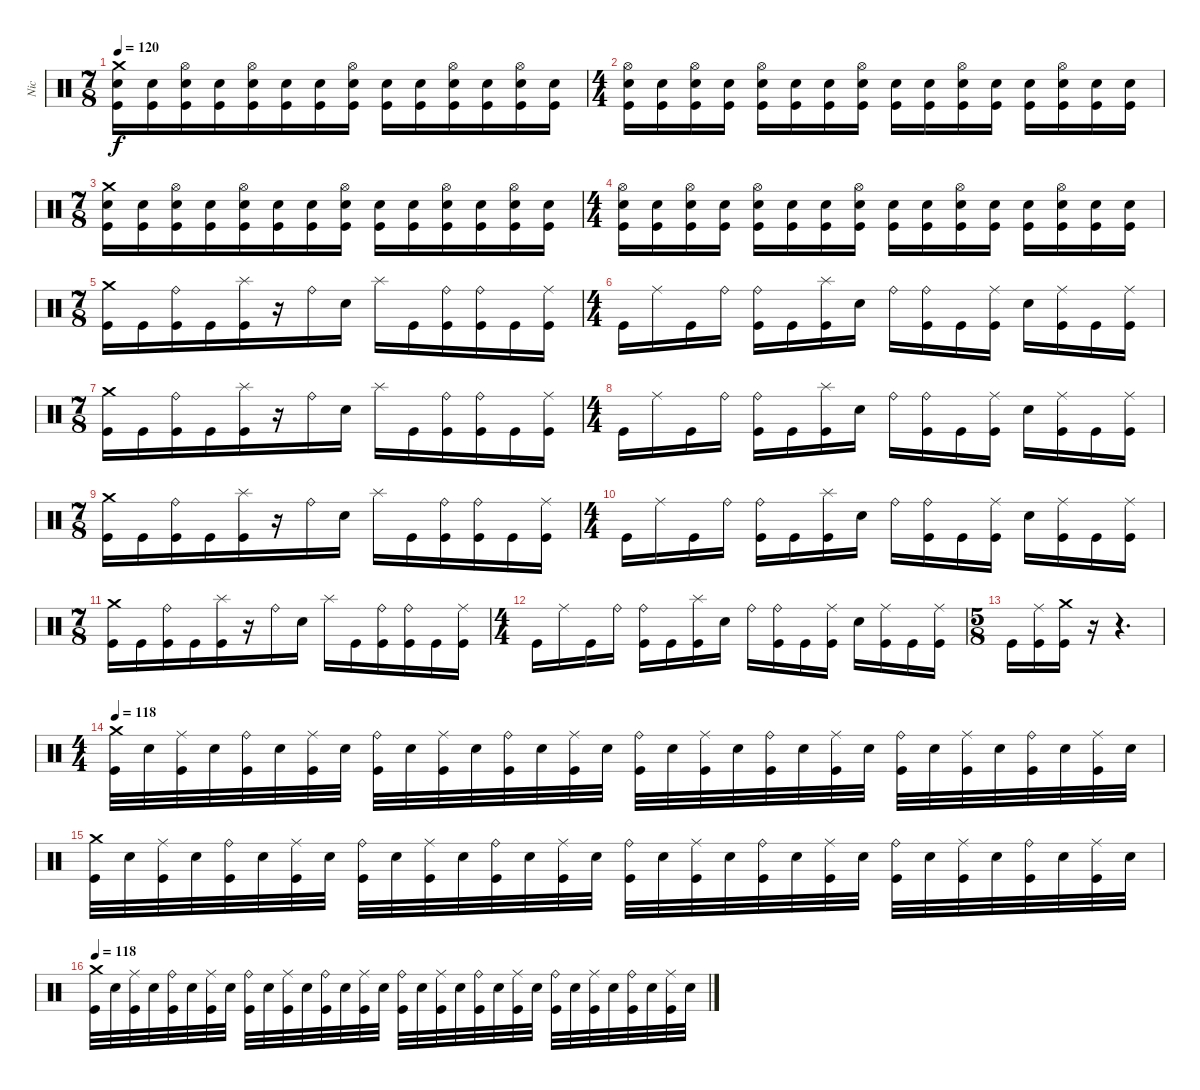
\track ("Nic" "Nic") {instrument percussion}
\staff {score}
\articulation defaults
\ts (7 8)
\tempo 120
\clef neutral
\ks c
("Crash medium (hit)" "Snare (hit) 2" "Kick (hit)").16{dy f} ("Snare (hit) 2" "Kick (hit)").16 ("Hi-Hat (open)" "Snare (hit) 2" "Kick (hit)").16 ("Snare (hit) 2" "Kick (hit)").16 ("Hi-Hat (open)" "Snare (hit) 2" "Kick (hit)").16 ("Snare (hit) 2" "Kick (hit)").16 ("Snare (hit) 2" "Kick (hit)").16 ("Hi-Hat (open)" "Snare (hit) 2" "Kick (hit)").16 ("Snare (hit) 2" "Kick (hit)").16 ("Snare (hit) 2" "Kick (hit)").16 ("Hi-Hat (open)" "Snare (hit) 2" "Kick (hit)").16 ("Snare (hit) 2" "Kick (hit)").16 ("Hi-Hat (open)" "Snare (hit) 2" "Kick (hit)").16 ("Snare (hit) 2" "Kick (hit)").16 |
\ts (4 4)
("Hi-Hat (open)" "Snare (hit) 2" "Kick (hit)").16 ("Snare (hit) 2" "Kick (hit)").16 ("Hi-Hat (open)" "Snare (hit) 2" "Kick (hit)").16 ("Snare (hit) 2" "Kick (hit)").16 ("Hi-Hat (open)" "Snare (hit) 2" "Kick (hit)").16 ("Snare (hit) 2" "Kick (hit)").16 ("Snare (hit) 2" "Kick (hit)").16 ("Hi-Hat (open)" "Snare (hit) 2" "Kick (hit)").16 ("Snare (hit) 2" "Kick (hit)").16 ("Snare (hit) 2" "Kick (hit)").16 ("Hi-Hat (open)" "Snare (hit) 2" "Kick (hit)").16 ("Snare (hit) 2" "Kick (hit)").16 ("Snare (hit) 2" "Kick (hit)").16 ("Hi-Hat (open)" "Snare (hit) 2" "Kick (hit)").16 ("Snare (hit) 2" "Kick (hit)").16 ("Snare (hit) 2" "Kick (hit)").16 |
\ts (7 8)
("Crash medium (hit)" "Snare (hit) 2" "Kick (hit)").16 ("Snare (hit) 2" "Kick (hit)").16 ("Hi-Hat (open)" "Snare (hit) 2" "Kick (hit)").16 ("Snare (hit) 2" "Kick (hit)").16 ("Hi-Hat (open)" "Snare (hit) 2" "Kick (hit)").16 ("Snare (hit) 2" "Kick (hit)").16 ("Snare (hit) 2" "Kick (hit)").16 ("Hi-Hat (open)" "Snare (hit) 2" "Kick (hit)").16 ("Snare (hit) 2" "Kick (hit)").16 ("Snare (hit) 2" "Kick (hit)").16 ("Hi-Hat (open)" "Snare (hit) 2" "Kick (hit)").16 ("Snare (hit) 2" "Kick (hit)").16 ("Hi-Hat (open)" "Snare (hit) 2" "Kick (hit)").16 ("Snare (hit) 2" "Kick (hit)").16 |
\ts (4 4)
("Hi-Hat (open)" "Snare (hit) 2" "Kick (hit)").16 ("Snare (hit) 2" "Kick (hit)").16 ("Hi-Hat (open)" "Snare (hit) 2" "Kick (hit)").16 ("Snare (hit) 2" "Kick (hit)").16 ("Hi-Hat (open)" "Snare (hit) 2" "Kick (hit)").16 ("Snare (hit) 2" "Kick (hit)").16 ("Snare (hit) 2" "Kick (hit)").16 ("Hi-Hat (open)" "Snare (hit) 2" "Kick (hit)").16 ("Snare (hit) 2" "Kick (hit)").16 ("Snare (hit) 2" "Kick (hit)").16 ("Hi-Hat (open)" "Snare (hit) 2" "Kick (hit)").16 ("Snare (hit) 2" "Kick (hit)").16 ("Snare (hit) 2" "Kick (hit)").16 ("Hi-Hat (open)" "Snare (hit) 2" "Kick (hit)").16 ("Snare (hit) 2" "Kick (hit)").16 ("Snare (hit) 2" "Kick (hit)").16 |
\ts (7 8)
("Crash medium (hit)" "Kick (hit)").16 "Kick (hit)".16 ("Ride (bell)" "Kick (hit)").16 "Kick (hit)".16 ("Splash (hit)" "Kick (hit)").16 r.16 "Ride (bell)".16 "Snare (hit) 2".16 "Splash (hit)".16 "Kick (hit)".16 ("Ride (bell)" "Kick (hit)").16 ("Ride (bell)" "Kick (hit)").16 "Kick (hit)".16 ("Ride (middle)" "Kick (hit)").16 |
\ts (4 4)
"Kick (hit)".16 "Ride (middle)".16 "Kick (hit)".16 "Ride (bell)".16 ("Ride (bell)" "Kick (hit)").16 "Kick (hit)".16 ("Splash (hit)" "Kick (hit)").16 "Snare (hit) 2".16 "Ride (bell)".16 ("Ride (bell)" "Kick (hit)").16 "Kick (hit)".16 ("Ride (middle)" "Kick (hit)").16 "Snare (hit) 2".16 ("Ride (middle)" "Kick (hit)").16 "Kick (hit)".16 ("Ride (middle)" "Kick (hit)").16 |
\ts (7 8)
("Crash medium (hit)" "Kick (hit)").16 "Kick (hit)".16 ("Ride (bell)" "Kick (hit)").16 "Kick (hit)".16 ("Splash (hit)" "Kick (hit)").16 r.16 "Ride (bell)".16 "Snare (hit) 2".16 "Splash (hit)".16 "Kick (hit)".16 ("Ride (bell)" "Kick (hit)").16 ("Ride (bell)" "Kick (hit)").16 "Kick (hit)".16 ("Ride (middle)" "Kick (hit)").16 |
\ts (4 4)
"Kick (hit)".16 "Ride (middle)".16 "Kick (hit)".16 "Ride (bell)".16 ("Ride (bell)" "Kick (hit)").16 "Kick (hit)".16 ("Splash (hit)" "Kick (hit)").16 "Snare (hit) 2".16 "Ride (bell)".16 ("Ride (bell)" "Kick (hit)").16 "Kick (hit)".16 ("Ride (middle)" "Kick (hit)").16 "Snare (hit) 2".16 ("Ride (middle)" "Kick (hit)").16 "Kick (hit)".16 ("Ride (middle)" "Kick (hit)").16 |
\ts (7 8)
("Crash medium (hit)" "Kick (hit)").16 "Kick (hit)".16 ("Ride (bell)" "Kick (hit)").16 "Kick (hit)".16 ("Splash (hit)" "Kick (hit)").16 r.16 "Ride (bell)".16 "Snare (hit) 2".16 "Splash (hit)".16 "Kick (hit)".16 ("Ride (bell)" "Kick (hit)").16 ("Ride (bell)" "Kick (hit)").16 "Kick (hit)".16 ("Ride (middle)" "Kick (hit)").16 |
\ts (4 4)
"Kick (hit)".16 "Ride (middle)".16 "Kick (hit)".16 "Ride (bell)".16 ("Ride (bell)" "Kick (hit)").16 "Kick (hit)".16 ("Splash (hit)" "Kick (hit)").16 "Snare (hit) 2".16 "Ride (bell)".16 ("Ride (bell)" "Kick (hit)").16 "Kick (hit)".16 ("Ride (middle)" "Kick (hit)").16 "Snare (hit) 2".16 ("Ride (middle)" "Kick (hit)").16 "Kick (hit)".16 ("Ride (middle)" "Kick (hit)").16 |
\ts (7 8)
("Crash medium (hit)" "Kick (hit)").16 "Kick (hit)".16 ("Ride (bell)" "Kick (hit)").16 "Kick (hit)".16 ("Splash (hit)" "Kick (hit)").16 r.16 "Ride (bell)".16 "Snare (hit) 2".16 "Splash (hit)".16 "Kick (hit)".16 ("Ride (bell)" "Kick (hit)").16 ("Ride (bell)" "Kick (hit)").16 "Kick (hit)".16 ("Ride (middle)" "Kick (hit)").16 |
\ts (4 4)
"Kick (hit)".16 "Ride (middle)".16 "Kick (hit)".16 "Ride (bell)".16 ("Ride (bell)" "Kick (hit)").16 "Kick (hit)".16 ("Splash (hit)" "Kick (hit)").16 "Snare (hit) 2".16 "Ride (bell)".16 ("Ride (bell)" "Kick (hit)").16 "Kick (hit)".16 ("Ride (middle)" "Kick (hit)").16 "Snare (hit) 2".16 ("Ride (middle)" "Kick (hit)").16 "Kick (hit)".16 ("Ride (middle)" "Kick (hit)").16 |
\ts (5 8)
"Kick (hit)".16 ("Ride (middle)" "Kick (hit)").16 ("Crash medium (hit)" "Kick (hit)").16 r.16 r.4{d} |
\ts (4 4)
\tempo 118
("Crash medium (hit)" "Kick (hit)").32 "Snare (hit) 2".32 ("Ride (middle)" "Kick (hit)").32 "Snare (hit) 2".32 ("Ride (bell)" "Kick (hit)").32 "Snare (hit) 2".32 ("Ride (middle)" "Kick (hit)").32 "Snare (hit) 2".32 ("Ride (bell)" "Kick (hit)").32 "Snare (hit) 2".32 ("Ride (middle)" "Kick (hit)").32 "Snare (hit) 2".32 ("Ride (bell)" "Kick (hit)").32 "Snare (hit) 2".32 ("Ride (middle)" "Kick (hit)").32 "Snare (hit) 2".32 ("Ride (bell)" "Kick (hit)").32 "Snare (hit) 2".32 ("Ride (middle)" "Kick (hit)").32 "Snare (hit) 2".32 ("Ride (bell)" "Kick (hit)").32 "Snare (hit) 2".32 ("Ride (middle)" "Kick (hit)").32 "Snare (hit) 2".32 ("Ride (bell)" "Kick (hit)").32 "Snare (hit) 2".32 ("Ride (middle)" "Kick (hit)").32 "Snare (hit) 2".32 ("Ride (bell)" "Kick (hit)").32 "Snare (hit) 2".32 ("Ride (middle)" "Kick (hit)").32 "Snare (hit) 2".32 |
("Crash medium (hit)" "Kick (hit)").32 "Snare (hit) 2".32 ("Ride (middle)" "Kick (hit)").32 "Snare (hit) 2".32 ("Ride (bell)" "Kick (hit)").32 "Snare (hit) 2".32 ("Ride (middle)" "Kick (hit)").32 "Snare (hit) 2".32 ("Ride (bell)" "Kick (hit)").32 "Snare (hit) 2".32 ("Ride (middle)" "Kick (hit)").32 "Snare (hit) 2".32 ("Ride (bell)" "Kick (hit)").32 "Snare (hit) 2".32 ("Ride (middle)" "Kick (hit)").32 "Snare (hit) 2".32 ("Ride (bell)" "Kick (hit)").32 "Snare (hit) 2".32 ("Ride (middle)" "Kick (hit)").32 "Snare (hit) 2".32 ("Ride (bell)" "Kick (hit)").32 "Snare (hit) 2".32 ("Ride (middle)" "Kick (hit)").32 "Snare (hit) 2".32 ("Ride (bell)" "Kick (hit)").32 "Snare (hit) 2".32 ("Ride (middle)" "Kick (hit)").32 "Snare (hit) 2".32 ("Ride (bell)" "Kick (hit)").32 "Snare (hit) 2".32 ("Ride (middle)" "Kick (hit)").32 "Snare (hit) 2".32 |
\tempo 118
("Crash medium (hit)" "Kick (hit)").32 "Snare (hit) 2".32 ("Ride (middle)" "Kick (hit)").32 "Snare (hit) 2".32 ("Ride (bell)" "Kick (hit)").32 "Snare (hit) 2".32 ("Ride (middle)" "Kick (hit)").32 "Snare (hit) 2".32 ("Ride (bell)" "Kick (hit)").32 "Snare (hit) 2".32 ("Ride (middle)" "Kick (hit)").32 "Snare (hit) 2".32 ("Ride (bell)" "Kick (hit)").32 "Snare (hit) 2".32 ("Ride (middle)" "Kick (hit)").32 "Snare (hit) 2".32 ("Ride (bell)" "Kick (hit)").32 "Snare (hit) 2".32 ("Ride (middle)" "Kick (hit)").32 "Snare (hit) 2".32 ("Ride (bell)" "Kick (hit)").32 "Snare (hit) 2".32 ("Ride (middle)" "Kick (hit)").32 "Snare (hit) 2".32 ("Ride (bell)" "Kick (hit)").32 "Snare (hit) 2".32 ("Ride (middle)" "Kick (hit)").32 "Snare (hit) 2".32 ("Ride (bell)" "Kick (hit)").32 "Snare (hit) 2".32 ("Ride (middle)" "Kick (hit)").32 "Snare (hit) 2".32
